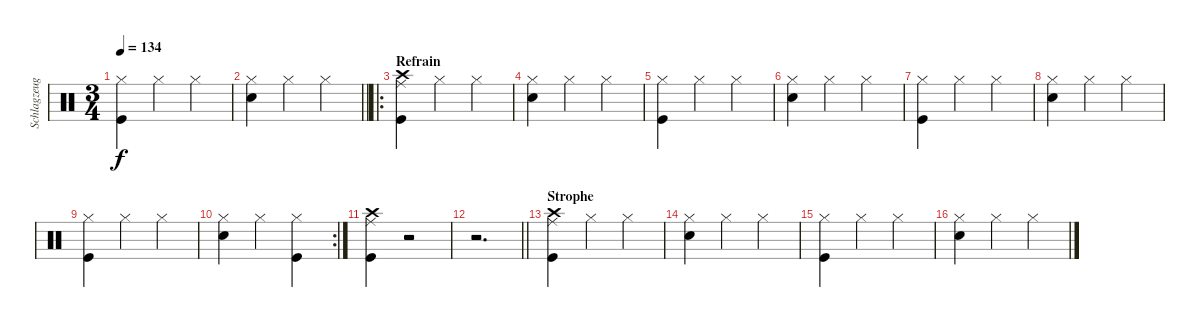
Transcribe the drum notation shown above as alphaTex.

\track ("Schlagzeug" "Schlagzeug") {instrument percussion}
\staff {score}
\articulation defaults
\ts (3 4)
\tempo 134
\clef neutral
\ks c
("Hi-Hat (closed)" "Kick (hit)").4{dy f} "Hi-Hat (closed)".4 "Hi-Hat (closed)".4 |
\barLineRight lightlight
("Hi-Hat (closed)" "Snare (hit) 2").4 "Hi-Hat (closed)".4 "Hi-Hat (closed)".4 |
\ro
\section ("" "Refrain")
("Crash high (hit)" "Ride (middle)" "Kick (hit)").4 "Hi-Hat (closed)".4 "Hi-Hat (closed)".4 |
("Hi-Hat (closed)" "Snare (hit) 2").4 "Hi-Hat (closed)".4 "Hi-Hat (closed)".4 |
("Hi-Hat (closed)" "Kick (hit)").4 "Hi-Hat (closed)".4 "Hi-Hat (closed)".4 |
("Hi-Hat (closed)" "Snare (hit) 2").4 "Hi-Hat (closed)".4 "Hi-Hat (closed)".4 |
("Hi-Hat (closed)" "Kick (hit)").4 "Hi-Hat (closed)".4 "Hi-Hat (closed)".4 |
("Hi-Hat (closed)" "Snare (hit) 2").4 "Hi-Hat (closed)".4 "Hi-Hat (closed)".4 |
("Hi-Hat (closed)" "Kick (hit)").4 "Hi-Hat (closed)".4 "Hi-Hat (closed)".4 |
\rc 2
("Hi-Hat (closed)" "Snare (hit) 2").4 "Hi-Hat (closed)".4 ("Hi-Hat (closed)" "Kick (hit)").4 |
("Crash high (hit)" "Ride (middle)" "Kick (hit)").4 r.2 |
\barLineRight lightlight
r.2{d} |
\section ("" "Strophe")
("Crash high (hit)" "Ride (middle)" "Kick (hit)").4 "Hi-Hat (closed)".4 "Hi-Hat (closed)".4 |
("Hi-Hat (closed)" "Snare (hit) 2").4 "Hi-Hat (closed)".4 "Hi-Hat (closed)".4 |
("Hi-Hat (closed)" "Kick (hit)").4 "Hi-Hat (closed)".4 "Hi-Hat (closed)".4 |
("Hi-Hat (closed)" "Snare (hit) 2").4 "Hi-Hat (closed)".4 "Hi-Hat (closed)".4
